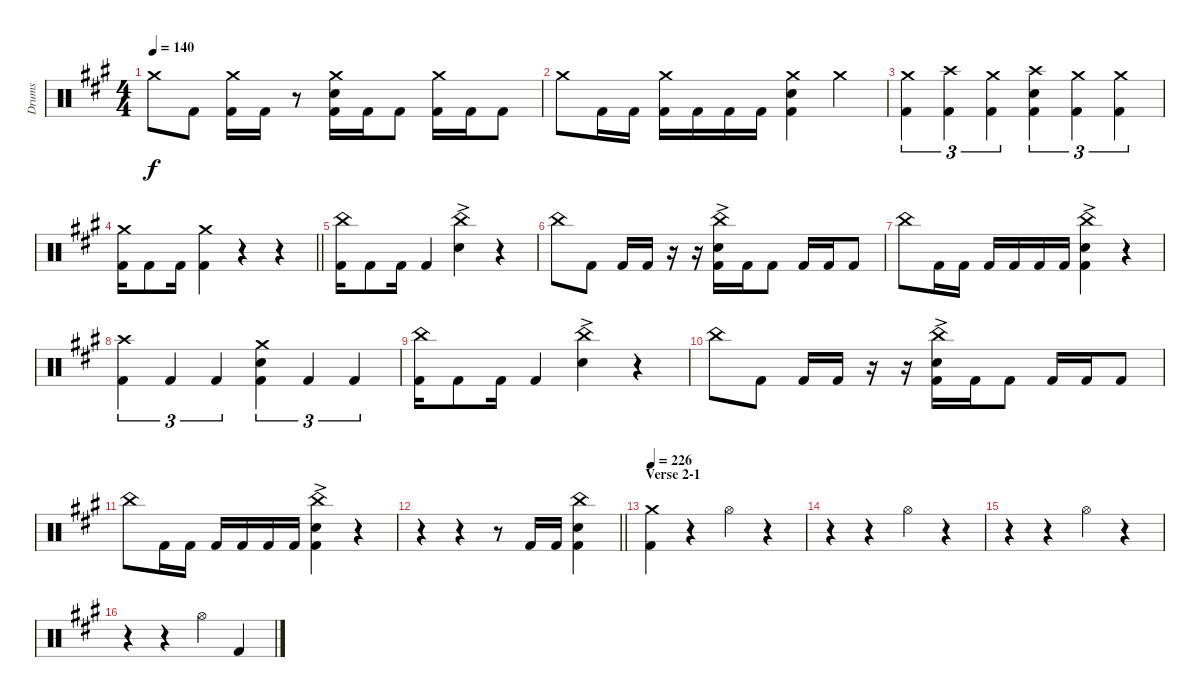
\track ("Drums" "Drums") {instrument percussion}
\staff {score}
\articulation defaults
\ts (4 4)
\tempo 140
\clef neutral
\ks a "Crash medium (hit)".8{dy f} "Kick (hit) 2".8
("Crash medium (hit)" "Kick (hit) 2").16 "Kick (hit) 2".16 r.8 ("Crash medium (hit)" "Snare (hit) 2" "Kick (hit) 2").16 "Kick (hit) 2".16 "Kick (hit) 2".8 ("Crash medium (hit)" "Kick (hit) 2").16 "Kick (hit) 2".16 "Kick (hit) 2".8 |
"Crash medium (hit)".8 "Kick (hit) 2".16 "Kick (hit) 2".16 ("Crash medium (hit)" "Kick (hit) 2").16 "Kick (hit) 2".16 "Kick (hit) 2".16 "Kick (hit) 2".16 ("Crash medium (hit)" "Snare (hit) 2" "Kick (hit) 2").4 "Crash medium (hit)".4 |
("Crash medium (hit)" "Kick (hit) 2").4{tu (3 2)} ("Crash high (hit)" "Kick (hit) 2").4{tu (3 2)} ("Crash medium (hit)" "Kick (hit) 2").4{tu (3 2)} ("Crash high (hit)" "Snare (hit) 2" "Kick (hit) 2").4{tu (3 2)} ("Crash medium (hit)" "Kick (hit) 2").4{tu (3 2)} ("Crash medium (hit)" "Kick (hit) 2").4{tu (3 2)} |
\barLineRight lightlight
("Crash medium (hit)" "Kick (hit) 2").16 "Kick (hit) 2".8 "Kick (hit) 2".16 ("Crash medium (hit)" "Kick (hit) 2").4 r.4 r.4 |
("China (hit)" "Kick (hit) 2").16 "Kick (hit) 2".8 "Kick (hit) 2".16 "Kick (hit) 2".4 ("China (hit)" "Snare (hit) 2"{ac}).4 r.4 |
"China (hit)".8 "Kick (hit) 2".8 "Kick (hit) 2".16 "Kick (hit) 2".16 r.16 r.16 ("China (hit)" "Snare (hit) 2"{ac} "Kick (hit) 2").16 "Kick (hit) 2".16 "Kick (hit) 2".8 "Kick (hit) 2".16 "Kick (hit) 2".16 "Kick (hit) 2".8 |
"China (hit)".8 "Kick (hit) 2".16 "Kick (hit) 2".16 "Kick (hit) 2".16 "Kick (hit) 2".16 "Kick (hit) 2".16 "Kick (hit) 2".16 ("China (hit)" "Snare (hit) 2"{ac} "Kick (hit) 2").4 r.4 |
("Crash high (hit)" "Kick (hit) 2").4{tu (3 2)} "Kick (hit) 2".4{tu (3 2)} "Kick (hit) 2".4{tu (3 2)} ("Crash medium (hit)" "Snare (hit) 2" "Kick (hit) 2").4{tu (3 2)} "Kick (hit) 2".4{tu (3 2)} "Kick (hit) 2".4{tu (3 2)} |
("China (hit)" "Kick (hit) 2").16 "Kick (hit) 2".8 "Kick (hit) 2".16 "Kick (hit) 2".4 ("China (hit)" "Snare (hit) 2"{ac}).4 r.4 |
"China (hit)".8 "Kick (hit) 2".8 "Kick (hit) 2".16 "Kick (hit) 2".16 r.16 r.16 ("China (hit)" "Snare (hit) 2"{ac} "Kick (hit) 2").16 "Kick (hit) 2".16 "Kick (hit) 2".8 "Kick (hit) 2".16 "Kick (hit) 2".16 "Kick (hit) 2".8 |
"China (hit)".8 "Kick (hit) 2".16 "Kick (hit) 2".16 "Kick (hit) 2".16 "Kick (hit) 2".16 "Kick (hit) 2".16 "Kick (hit) 2".16 ("China (hit)" "Snare (hit) 2"{ac} "Kick (hit) 2").4 r.4 |
\barLineRight lightlight
r.4 r.4 r.8 "Kick (hit) 2".16 "Kick (hit) 2".16 ("China (hit)" "Snare (hit) 2" "Kick (hit) 2").4 |
\section ("" "Verse 2-1")
\tempo 226
("Crash medium (hit)" "Kick (hit) 2").4 r.4 "Hi-Hat (open)".4 r.4 |
r.4 r.4 "Hi-Hat (open)".4 r.4 |
r.4 r.4 "Hi-Hat (open)".4 r.4 |
r.4 r.4 "Hi-Hat (open)".4 "Kick (hit) 2".4
